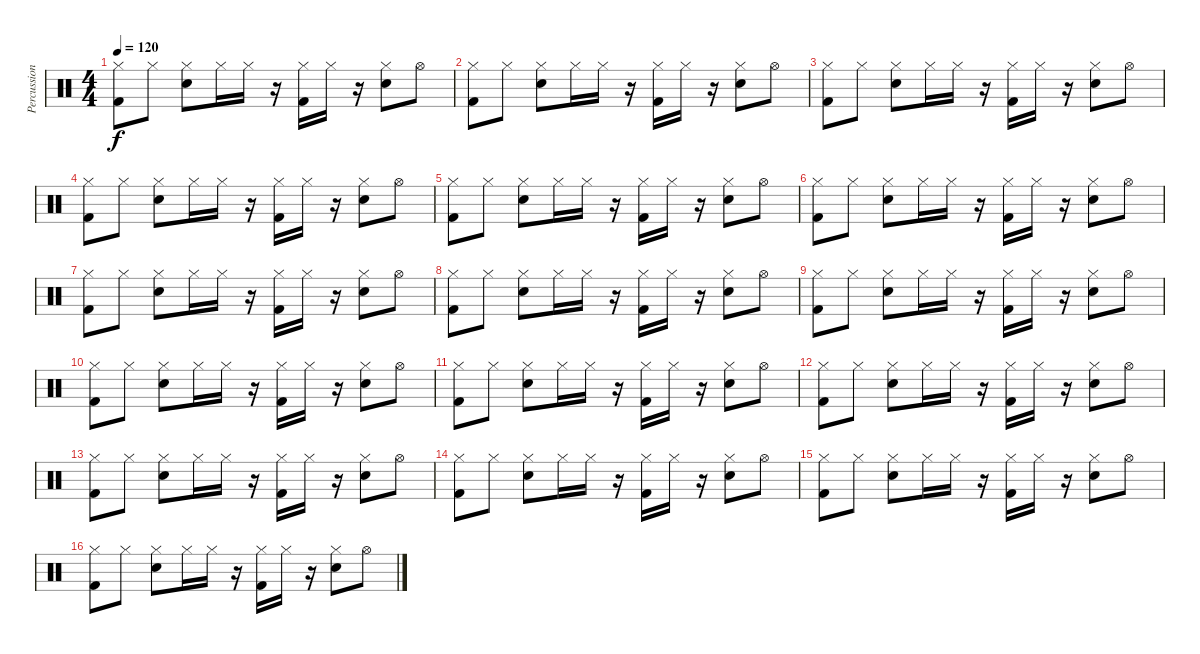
\track ("Percussions" "Percussion") {instrument percussion}
\staff {score}
\articulation defaults
\ts (4 4)
\tempo 120
\clef neutral
\ks c
("Hi-Hat (closed)" "Kick (hit) 2").8{dy f} "Hi-Hat (closed)".8 ("Hi-Hat (closed)" "Snare (hit) 2").8 "Hi-Hat (closed)".16 "Hi-Hat (closed)".16 r.16 ("Hi-Hat (closed)" "Kick (hit) 2").16 "Hi-Hat (closed)".16 r.16 ("Hi-Hat (closed)" "Snare (hit) 2").8 "Hi-Hat (open)".8 |
("Hi-Hat (closed)" "Kick (hit) 2").8 "Hi-Hat (closed)".8 ("Hi-Hat (closed)" "Snare (hit) 2").8 "Hi-Hat (closed)".16 "Hi-Hat (closed)".16 r.16 ("Hi-Hat (closed)" "Kick (hit) 2").16 "Hi-Hat (closed)".16 r.16 ("Hi-Hat (closed)" "Snare (hit) 2").8 "Hi-Hat (open)".8 |
("Hi-Hat (closed)" "Kick (hit) 2").8 "Hi-Hat (closed)".8 ("Hi-Hat (closed)" "Snare (hit) 2").8 "Hi-Hat (closed)".16 "Hi-Hat (closed)".16 r.16 ("Hi-Hat (closed)" "Kick (hit) 2").16 "Hi-Hat (closed)".16 r.16 ("Hi-Hat (closed)" "Snare (hit) 2").8 "Hi-Hat (open)".8 |
("Hi-Hat (closed)" "Kick (hit) 2").8 "Hi-Hat (closed)".8 ("Hi-Hat (closed)" "Snare (hit) 2").8 "Hi-Hat (closed)".16 "Hi-Hat (closed)".16 r.16 ("Hi-Hat (closed)" "Kick (hit) 2").16 "Hi-Hat (closed)".16 r.16 ("Hi-Hat (closed)" "Snare (hit) 2").8 "Hi-Hat (open)".8 |
("Hi-Hat (closed)" "Kick (hit) 2").8 "Hi-Hat (closed)".8 ("Hi-Hat (closed)" "Snare (hit) 2").8 "Hi-Hat (closed)".16 "Hi-Hat (closed)".16 r.16 ("Hi-Hat (closed)" "Kick (hit) 2").16 "Hi-Hat (closed)".16 r.16 ("Hi-Hat (closed)" "Snare (hit) 2").8 "Hi-Hat (open)".8 |
("Hi-Hat (closed)" "Kick (hit) 2").8 "Hi-Hat (closed)".8 ("Hi-Hat (closed)" "Snare (hit) 2").8 "Hi-Hat (closed)".16 "Hi-Hat (closed)".16 r.16 ("Hi-Hat (closed)" "Kick (hit) 2").16 "Hi-Hat (closed)".16 r.16 ("Hi-Hat (closed)" "Snare (hit) 2").8 "Hi-Hat (open)".8 |
("Hi-Hat (closed)" "Kick (hit) 2").8 "Hi-Hat (closed)".8 ("Hi-Hat (closed)" "Snare (hit) 2").8 "Hi-Hat (closed)".16 "Hi-Hat (closed)".16 r.16 ("Hi-Hat (closed)" "Kick (hit) 2").16 "Hi-Hat (closed)".16 r.16 ("Hi-Hat (closed)" "Snare (hit) 2").8 "Hi-Hat (open)".8 |
("Hi-Hat (closed)" "Kick (hit) 2").8 "Hi-Hat (closed)".8 ("Hi-Hat (closed)" "Snare (hit) 2").8 "Hi-Hat (closed)".16 "Hi-Hat (closed)".16 r.16 ("Hi-Hat (closed)" "Kick (hit) 2").16 "Hi-Hat (closed)".16 r.16 ("Hi-Hat (closed)" "Snare (hit) 2").8 "Hi-Hat (open)".8 |
("Hi-Hat (closed)" "Kick (hit) 2").8 "Hi-Hat (closed)".8 ("Hi-Hat (closed)" "Snare (hit) 2").8 "Hi-Hat (closed)".16 "Hi-Hat (closed)".16 r.16 ("Hi-Hat (closed)" "Kick (hit) 2").16 "Hi-Hat (closed)".16 r.16 ("Hi-Hat (closed)" "Snare (hit) 2").8 "Hi-Hat (open)".8 |
("Hi-Hat (closed)" "Kick (hit) 2").8 "Hi-Hat (closed)".8 ("Hi-Hat (closed)" "Snare (hit) 2").8 "Hi-Hat (closed)".16 "Hi-Hat (closed)".16 r.16 ("Hi-Hat (closed)" "Kick (hit) 2").16 "Hi-Hat (closed)".16 r.16 ("Hi-Hat (closed)" "Snare (hit) 2").8 "Hi-Hat (open)".8 |
("Hi-Hat (closed)" "Kick (hit) 2").8 "Hi-Hat (closed)".8 ("Hi-Hat (closed)" "Snare (hit) 2").8 "Hi-Hat (closed)".16 "Hi-Hat (closed)".16 r.16 ("Hi-Hat (closed)" "Kick (hit) 2").16 "Hi-Hat (closed)".16 r.16 ("Hi-Hat (closed)" "Snare (hit) 2").8 "Hi-Hat (open)".8 |
("Hi-Hat (closed)" "Kick (hit) 2").8 "Hi-Hat (closed)".8 ("Hi-Hat (closed)" "Snare (hit) 2").8 "Hi-Hat (closed)".16 "Hi-Hat (closed)".16 r.16 ("Hi-Hat (closed)" "Kick (hit) 2").16 "Hi-Hat (closed)".16 r.16 ("Hi-Hat (closed)" "Snare (hit) 2").8 "Hi-Hat (open)".8 |
("Hi-Hat (closed)" "Kick (hit) 2").8 "Hi-Hat (closed)".8 ("Hi-Hat (closed)" "Snare (hit) 2").8 "Hi-Hat (closed)".16 "Hi-Hat (closed)".16 r.16 ("Hi-Hat (closed)" "Kick (hit) 2").16 "Hi-Hat (closed)".16 r.16 ("Hi-Hat (closed)" "Snare (hit) 2").8 "Hi-Hat (open)".8 |
("Hi-Hat (closed)" "Kick (hit) 2").8 "Hi-Hat (closed)".8 ("Hi-Hat (closed)" "Snare (hit) 2").8 "Hi-Hat (closed)".16 "Hi-Hat (closed)".16 r.16 ("Hi-Hat (closed)" "Kick (hit) 2").16 "Hi-Hat (closed)".16 r.16 ("Hi-Hat (closed)" "Snare (hit) 2").8 "Hi-Hat (open)".8 |
("Hi-Hat (closed)" "Kick (hit) 2").8 "Hi-Hat (closed)".8 ("Hi-Hat (closed)" "Snare (hit) 2").8 "Hi-Hat (closed)".16 "Hi-Hat (closed)".16 r.16 ("Hi-Hat (closed)" "Kick (hit) 2").16 "Hi-Hat (closed)".16 r.16 ("Hi-Hat (closed)" "Snare (hit) 2").8 "Hi-Hat (open)".8 |
("Hi-Hat (closed)" "Kick (hit) 2").8 "Hi-Hat (closed)".8 ("Hi-Hat (closed)" "Snare (hit) 2").8 "Hi-Hat (closed)".16 "Hi-Hat (closed)".16 r.16 ("Hi-Hat (closed)" "Kick (hit) 2").16 "Hi-Hat (closed)".16 r.16 ("Hi-Hat (closed)" "Snare (hit) 2").8 "Hi-Hat (open)".8
